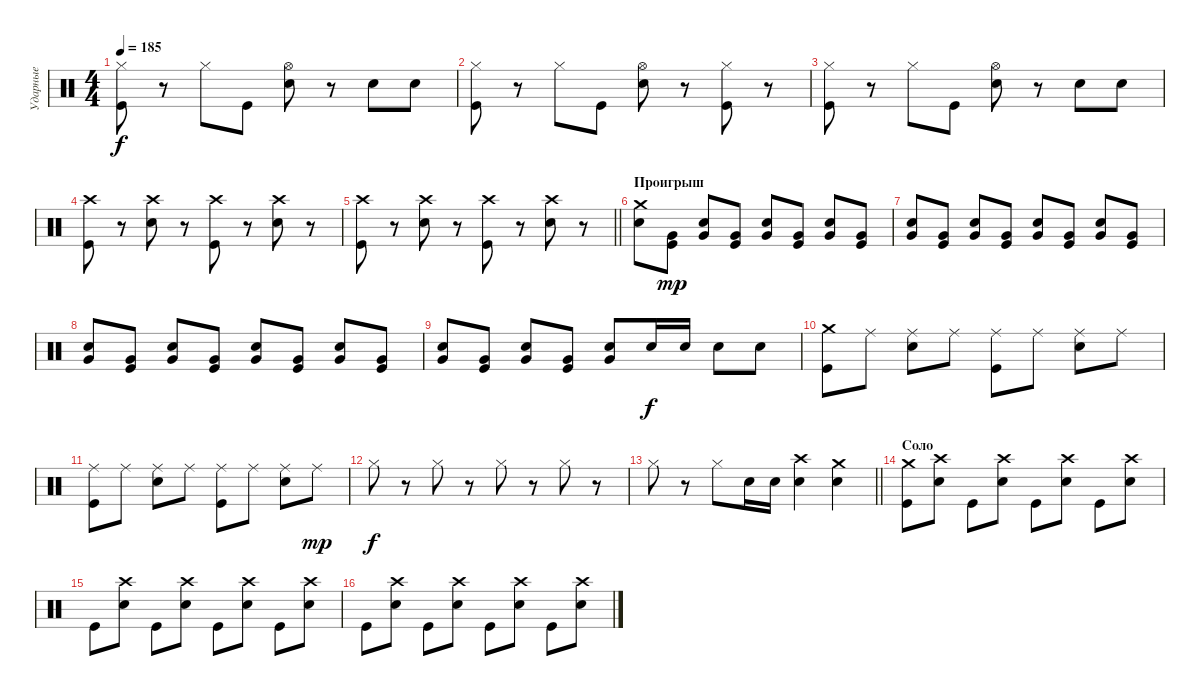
\track ("Ударные" "Ударные") {instrument percussion}
\staff {score}
\articulation defaults
\ts (4 4)
\tempo 185
\clef neutral
\ks c
("Hi-Hat (closed)" "Kick (hit)").8{dy f} r.8 "Hi-Hat (closed)".8 "Kick (hit)".8 ("Hi-Hat (open)" "Electric Snare (hit)").8 r.8 "Electric Snare (hit)".8 "Electric Snare (hit)".8 |
("Hi-Hat (closed)" "Kick (hit)").8 r.8 "Hi-Hat (closed)".8 "Kick (hit)".8 ("Hi-Hat (open)" "Electric Snare (hit)").8 r.8 ("Hi-Hat (closed)" "Kick (hit)").8 r.8 |
("Hi-Hat (closed)" "Kick (hit)").8 r.8 "Hi-Hat (closed)".8 "Kick (hit)".8 ("Hi-Hat (open)" "Electric Snare (hit)").8 r.8 "Electric Snare (hit)".8 "Electric Snare (hit)".8 |
("Crash high (hit)" "Kick (hit)").8 r.8 ("Crash high (hit)" "Electric Snare (hit)").8 r.8 ("Crash high (hit)" "Kick (hit)").8 r.8 ("Crash high (hit)" "Electric Snare (hit)").8 r.8 |
\barLineRight lightlight
("Crash high (hit)" "Kick (hit)").8 r.8 ("Crash high (hit)" "Electric Snare (hit)").8 r.8 ("Crash high (hit)" "Kick (hit)").8 r.8 ("Crash high (hit)" "Electric Snare (hit)").8 r.8 |
\section ("" "Проигрыш")
("Crash medium (hit)" "Electric Snare (hit)").8 ("Very Low Tom (hit)" "Kick (hit)").8{dy mp} ("Very Low Tom (hit)" "Electric Snare (hit)").8 ("Very Low Tom (hit)" "Kick (hit)").8 ("Very Low Tom (hit)" "Electric Snare (hit)").8 ("Very Low Tom (hit)" "Kick (hit)").8 ("Very Low Tom (hit)" "Electric Snare (hit)").8 ("Very Low Tom (hit)" "Kick (hit)").8 |
("Very Low Tom (hit)" "Electric Snare (hit)").8 ("Very Low Tom (hit)" "Kick (hit)").8 ("Very Low Tom (hit)" "Electric Snare (hit)").8 ("Very Low Tom (hit)" "Kick (hit)").8 ("Very Low Tom (hit)" "Electric Snare (hit)").8 ("Very Low Tom (hit)" "Kick (hit)").8 ("Very Low Tom (hit)" "Electric Snare (hit)").8 ("Very Low Tom (hit)" "Kick (hit)").8 |
("Very Low Tom (hit)" "Electric Snare (hit)").8 ("Very Low Tom (hit)" "Kick (hit)").8 ("Very Low Tom (hit)" "Electric Snare (hit)").8 ("Very Low Tom (hit)" "Kick (hit)").8 ("Very Low Tom (hit)" "Electric Snare (hit)").8 ("Very Low Tom (hit)" "Kick (hit)").8 ("Very Low Tom (hit)" "Electric Snare (hit)").8 ("Very Low Tom (hit)" "Kick (hit)").8 |
("Very Low Tom (hit)" "Electric Snare (hit)").8 ("Very Low Tom (hit)" "Kick (hit)").8 ("Very Low Tom (hit)" "Electric Snare (hit)").8 ("Very Low Tom (hit)" "Kick (hit)").8 ("Very Low Tom (hit)" "Electric Snare (hit)").8 "Electric Snare (hit)".16{dy f} "Electric Snare (hit)".16 "Electric Snare (hit)".8 "Electric Snare (hit)".8 |
("Crash medium (hit)" "Kick (hit)").8 "Ride (middle)".8 ("Ride (middle)" "Electric Snare (hit)").8 "Ride (middle)".8 ("Ride (middle)" "Kick (hit)").8 "Ride (middle)".8 ("Ride (middle)" "Electric Snare (hit)").8 "Ride (middle)".8 |
("Ride (middle)" "Kick (hit)").8 "Ride (middle)".8 ("Ride (middle)" "Electric Snare (hit)").8 "Ride (middle)".8 ("Ride (middle)" "Kick (hit)").8 "Ride (middle)".8 ("Ride (middle)" "Electric Snare (hit)").8 "Ride (middle)".8{dy mp} |
"Hi-Hat (closed)".8{dy f} r.8 "Hi-Hat (closed)".8 r.8 "Hi-Hat (closed)".8 r.8 "Hi-Hat (closed)".8 r.8 |
\barLineRight lightlight "Hi-Hat (closed)".8
r.8 "Hi-Hat (closed)".8 "Electric Snare (hit)".16 "Electric Snare (hit)".16 ("Crash high (hit)" "Electric Snare (hit)").4 ("Crash medium (hit)" "Electric Snare (hit)").4 |
\section ("" "Соло")
("Crash medium (hit)" "Kick (hit)").8 ("Crash high (hit)" "Electric Snare (hit)").8 "Kick (hit)".8 ("Crash high (hit)" "Electric Snare (hit)").8 "Kick (hit)".8 ("Crash high (hit)" "Electric Snare (hit)").8 "Kick (hit)".8 ("Crash high (hit)" "Electric Snare (hit)").8 |
"Kick (hit)".8 ("Crash high (hit)" "Electric Snare (hit)").8 "Kick (hit)".8 ("Crash high (hit)" "Electric Snare (hit)").8 "Kick (hit)".8 ("Crash high (hit)" "Electric Snare (hit)").8 "Kick (hit)".8 ("Crash high (hit)" "Electric Snare (hit)").8 |
"Kick (hit)".8 ("Crash high (hit)" "Electric Snare (hit)").8 "Kick (hit)".8 ("Crash high (hit)" "Electric Snare (hit)").8 "Kick (hit)".8 ("Crash high (hit)" "Electric Snare (hit)").8 "Kick (hit)".8 ("Crash high (hit)" "Electric Snare (hit)").8
